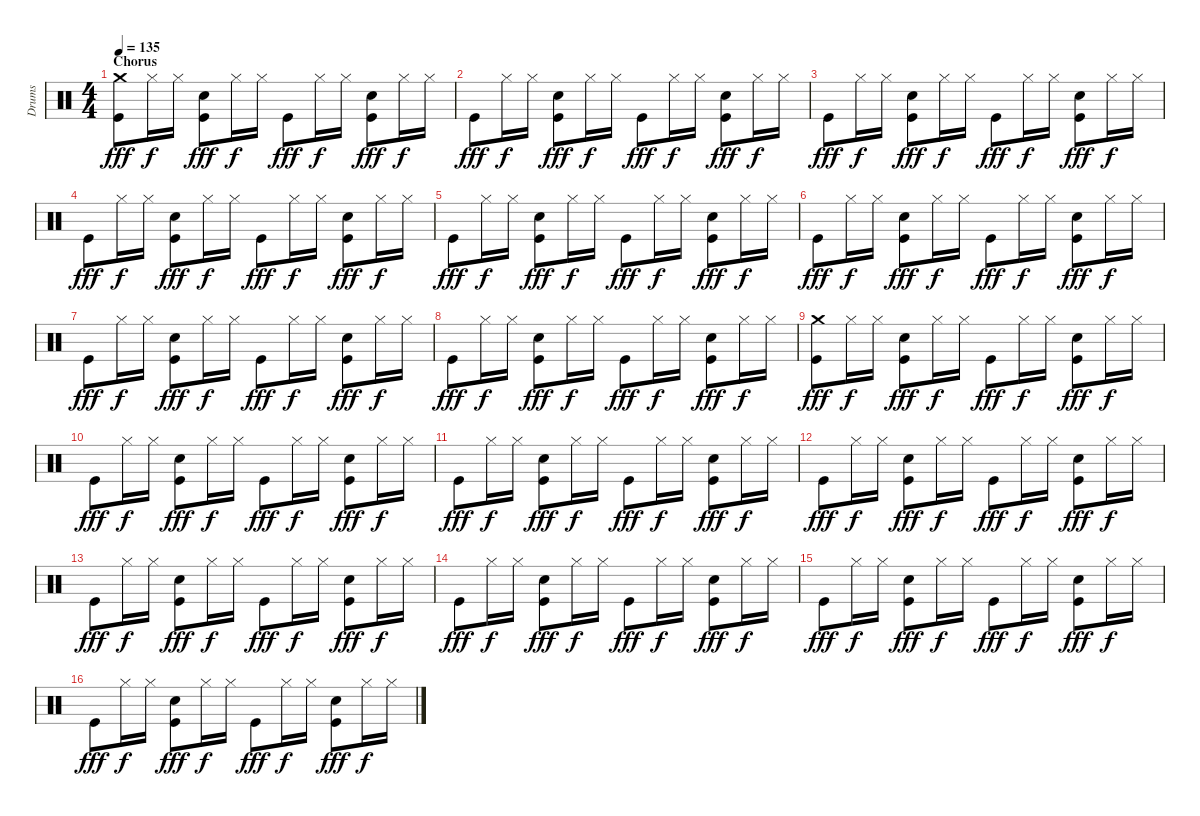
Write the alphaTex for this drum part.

\track ("Drums" "Drums") {instrument percussion}
\staff {score}
\articulation defaults
\ts (4 4)
\section ("" "Chorus")
\tempo 135
\clef neutral
\ks c
("Kick (hit)" "Crash medium (hit)").8{dy fff} "Hi-Hat (closed)".16{dy f} "Hi-Hat (closed)".16 ("Kick (hit)" "Snare (hit) 2").8{dy fff} "Hi-Hat (closed)".16{dy f} "Hi-Hat (closed)".16 "Kick (hit)".8{dy fff} "Hi-Hat (closed)".16{dy f} "Hi-Hat (closed)".16 ("Kick (hit)" "Snare (hit) 2").8{dy fff} "Hi-Hat (closed)".16{dy f} "Hi-Hat (closed)".16 |
"Kick (hit)".8{dy fff} "Hi-Hat (closed)".16{dy f} "Hi-Hat (closed)".16 ("Kick (hit)" "Snare (hit) 2").8{dy fff} "Hi-Hat (closed)".16{dy f} "Hi-Hat (closed)".16 "Kick (hit)".8{dy fff} "Hi-Hat (closed)".16{dy f} "Hi-Hat (closed)".16 ("Kick (hit)" "Snare (hit) 2").8{dy fff} "Hi-Hat (closed)".16{dy f} "Hi-Hat (closed)".16 |
"Kick (hit)".8{dy fff} "Hi-Hat (closed)".16{dy f} "Hi-Hat (closed)".16 ("Kick (hit)" "Snare (hit) 2").8{dy fff} "Hi-Hat (closed)".16{dy f} "Hi-Hat (closed)".16 "Kick (hit)".8{dy fff} "Hi-Hat (closed)".16{dy f} "Hi-Hat (closed)".16 ("Kick (hit)" "Snare (hit) 2").8{dy fff} "Hi-Hat (closed)".16{dy f} "Hi-Hat (closed)".16 |
"Kick (hit)".8{dy fff} "Hi-Hat (closed)".16{dy f} "Hi-Hat (closed)".16 ("Kick (hit)" "Snare (hit) 2").8{dy fff} "Hi-Hat (closed)".16{dy f} "Hi-Hat (closed)".16 "Kick (hit)".8{dy fff} "Hi-Hat (closed)".16{dy f} "Hi-Hat (closed)".16 ("Kick (hit)" "Snare (hit) 2").8{dy fff} "Hi-Hat (closed)".16{dy f} "Hi-Hat (closed)".16 |
"Kick (hit)".8{dy fff} "Hi-Hat (closed)".16{dy f} "Hi-Hat (closed)".16 ("Kick (hit)" "Snare (hit) 2").8{dy fff} "Hi-Hat (closed)".16{dy f} "Hi-Hat (closed)".16 "Kick (hit)".8{dy fff} "Hi-Hat (closed)".16{dy f} "Hi-Hat (closed)".16 ("Kick (hit)" "Snare (hit) 2").8{dy fff} "Hi-Hat (closed)".16{dy f} "Hi-Hat (closed)".16 |
"Kick (hit)".8{dy fff} "Hi-Hat (closed)".16{dy f} "Hi-Hat (closed)".16 ("Kick (hit)" "Snare (hit) 2").8{dy fff} "Hi-Hat (closed)".16{dy f} "Hi-Hat (closed)".16 "Kick (hit)".8{dy fff} "Hi-Hat (closed)".16{dy f} "Hi-Hat (closed)".16 ("Kick (hit)" "Snare (hit) 2").8{dy fff} "Hi-Hat (closed)".16{dy f} "Hi-Hat (closed)".16 |
"Kick (hit)".8{dy fff} "Hi-Hat (closed)".16{dy f} "Hi-Hat (closed)".16 ("Kick (hit)" "Snare (hit) 2").8{dy fff} "Hi-Hat (closed)".16{dy f} "Hi-Hat (closed)".16 "Kick (hit)".8{dy fff} "Hi-Hat (closed)".16{dy f} "Hi-Hat (closed)".16 ("Kick (hit)" "Snare (hit) 2").8{dy fff} "Hi-Hat (closed)".16{dy f} "Hi-Hat (closed)".16 |
"Kick (hit)".8{dy fff} "Hi-Hat (closed)".16{dy f} "Hi-Hat (closed)".16 ("Kick (hit)" "Snare (hit) 2").8{dy fff} "Hi-Hat (closed)".16{dy f} "Hi-Hat (closed)".16 "Kick (hit)".8{dy fff} "Hi-Hat (closed)".16{dy f} "Hi-Hat (closed)".16 ("Kick (hit)" "Snare (hit) 2").8{dy fff} "Hi-Hat (closed)".16{dy f} "Hi-Hat (closed)".16 |
("Kick (hit)" "Crash medium (hit)").8{dy fff} "Hi-Hat (closed)".16{dy f} "Hi-Hat (closed)".16 ("Kick (hit)" "Snare (hit) 2").8{dy fff} "Hi-Hat (closed)".16{dy f} "Hi-Hat (closed)".16 "Kick (hit)".8{dy fff} "Hi-Hat (closed)".16{dy f} "Hi-Hat (closed)".16 ("Kick (hit)" "Snare (hit) 2").8{dy fff} "Hi-Hat (closed)".16{dy f} "Hi-Hat (closed)".16 |
"Kick (hit)".8{dy fff} "Hi-Hat (closed)".16{dy f} "Hi-Hat (closed)".16 ("Kick (hit)" "Snare (hit) 2").8{dy fff} "Hi-Hat (closed)".16{dy f} "Hi-Hat (closed)".16 "Kick (hit)".8{dy fff} "Hi-Hat (closed)".16{dy f} "Hi-Hat (closed)".16 ("Kick (hit)" "Snare (hit) 2").8{dy fff} "Hi-Hat (closed)".16{dy f} "Hi-Hat (closed)".16 |
"Kick (hit)".8{dy fff} "Hi-Hat (closed)".16{dy f} "Hi-Hat (closed)".16 ("Kick (hit)" "Snare (hit) 2").8{dy fff} "Hi-Hat (closed)".16{dy f} "Hi-Hat (closed)".16 "Kick (hit)".8{dy fff} "Hi-Hat (closed)".16{dy f} "Hi-Hat (closed)".16 ("Kick (hit)" "Snare (hit) 2").8{dy fff} "Hi-Hat (closed)".16{dy f} "Hi-Hat (closed)".16 |
"Kick (hit)".8{dy fff} "Hi-Hat (closed)".16{dy f} "Hi-Hat (closed)".16 ("Kick (hit)" "Snare (hit) 2").8{dy fff} "Hi-Hat (closed)".16{dy f} "Hi-Hat (closed)".16 "Kick (hit)".8{dy fff} "Hi-Hat (closed)".16{dy f} "Hi-Hat (closed)".16 ("Kick (hit)" "Snare (hit) 2").8{dy fff} "Hi-Hat (closed)".16{dy f} "Hi-Hat (closed)".16 |
"Kick (hit)".8{dy fff} "Hi-Hat (closed)".16{dy f} "Hi-Hat (closed)".16 ("Kick (hit)" "Snare (hit) 2").8{dy fff} "Hi-Hat (closed)".16{dy f} "Hi-Hat (closed)".16 "Kick (hit)".8{dy fff} "Hi-Hat (closed)".16{dy f} "Hi-Hat (closed)".16 ("Kick (hit)" "Snare (hit) 2").8{dy fff} "Hi-Hat (closed)".16{dy f} "Hi-Hat (closed)".16 |
"Kick (hit)".8{dy fff} "Hi-Hat (closed)".16{dy f} "Hi-Hat (closed)".16 ("Kick (hit)" "Snare (hit) 2").8{dy fff} "Hi-Hat (closed)".16{dy f} "Hi-Hat (closed)".16 "Kick (hit)".8{dy fff} "Hi-Hat (closed)".16{dy f} "Hi-Hat (closed)".16 ("Kick (hit)" "Snare (hit) 2").8{dy fff} "Hi-Hat (closed)".16{dy f} "Hi-Hat (closed)".16 |
"Kick (hit)".8{dy fff} "Hi-Hat (closed)".16{dy f} "Hi-Hat (closed)".16 ("Kick (hit)" "Snare (hit) 2").8{dy fff} "Hi-Hat (closed)".16{dy f} "Hi-Hat (closed)".16 "Kick (hit)".8{dy fff} "Hi-Hat (closed)".16{dy f} "Hi-Hat (closed)".16 ("Kick (hit)" "Snare (hit) 2").8{dy fff} "Hi-Hat (closed)".16{dy f} "Hi-Hat (closed)".16 |
"Kick (hit)".8{dy fff} "Hi-Hat (closed)".16{dy f} "Hi-Hat (closed)".16 ("Kick (hit)" "Snare (hit) 2").8{dy fff} "Hi-Hat (closed)".16{dy f} "Hi-Hat (closed)".16 "Kick (hit)".8{dy fff} "Hi-Hat (closed)".16{dy f} "Hi-Hat (closed)".16 ("Kick (hit)" "Snare (hit) 2").8{dy fff} "Hi-Hat (closed)".16{dy f} "Hi-Hat (closed)".16
